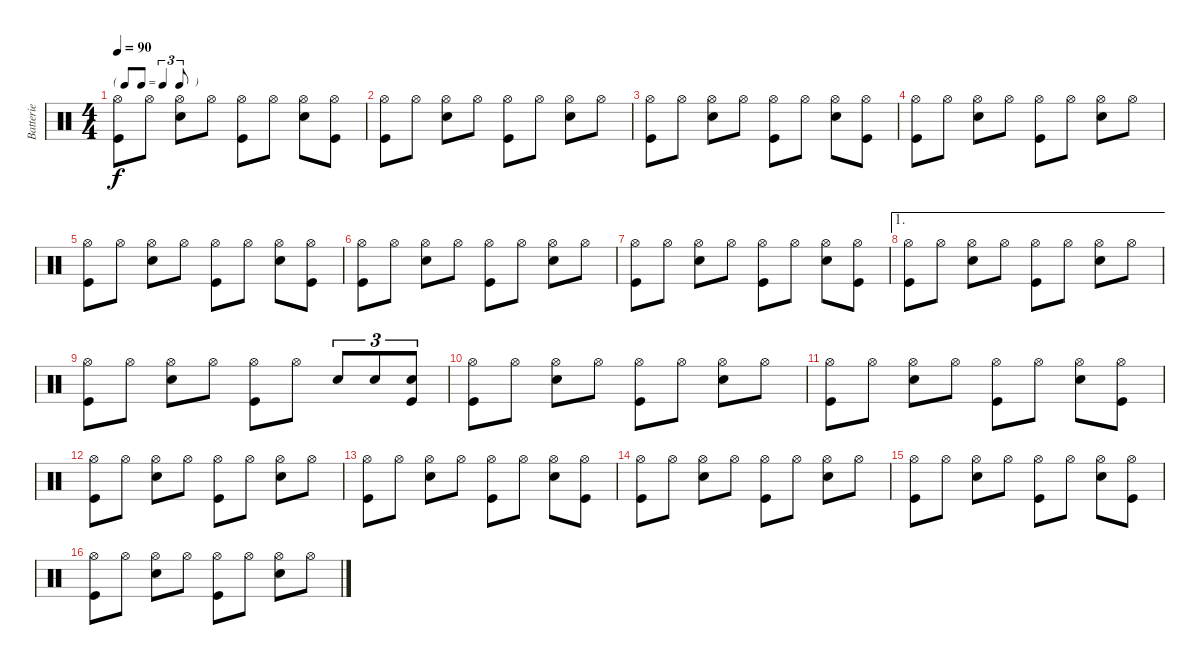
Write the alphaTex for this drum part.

\track ("Batterie" "Batterie") {instrument percussion}
\staff {score}
\articulation defaults
\ts (4 4)
\tf triplet8th
\tempo 90
\clef neutral
\ks c
("Hi-Hat (open)" "Kick (hit)").8{dy f} "Hi-Hat (open)".8 ("Hi-Hat (open)" "Snare (hit) 2").8 "Hi-Hat (open)".8 ("Hi-Hat (open)" "Kick (hit)").8 "Hi-Hat (open)".8 ("Hi-Hat (open)" "Snare (hit) 2").8 ("Hi-Hat (open)" "Kick (hit)").8 |
("Hi-Hat (open)" "Kick (hit)").8 "Hi-Hat (open)".8 ("Hi-Hat (open)" "Snare (hit) 2").8 "Hi-Hat (open)".8 ("Hi-Hat (open)" "Kick (hit)").8 "Hi-Hat (open)".8 ("Hi-Hat (open)" "Snare (hit) 2").8 "Hi-Hat (open)".8 |
("Hi-Hat (open)" "Kick (hit)").8 "Hi-Hat (open)".8 ("Hi-Hat (open)" "Snare (hit) 2").8 "Hi-Hat (open)".8 ("Hi-Hat (open)" "Kick (hit)").8 "Hi-Hat (open)".8 ("Hi-Hat (open)" "Snare (hit) 2").8 ("Hi-Hat (open)" "Kick (hit)").8 |
("Hi-Hat (open)" "Kick (hit)").8 "Hi-Hat (open)".8 ("Hi-Hat (open)" "Snare (hit) 2").8 "Hi-Hat (open)".8 ("Hi-Hat (open)" "Kick (hit)").8 "Hi-Hat (open)".8 ("Hi-Hat (open)" "Snare (hit) 2").8 "Hi-Hat (open)".8 |
("Hi-Hat (open)" "Kick (hit)").8 "Hi-Hat (open)".8 ("Hi-Hat (open)" "Snare (hit) 2").8 "Hi-Hat (open)".8 ("Hi-Hat (open)" "Kick (hit)").8 "Hi-Hat (open)".8 ("Hi-Hat (open)" "Snare (hit) 2").8 ("Hi-Hat (open)" "Kick (hit)").8 |
("Hi-Hat (open)" "Kick (hit)").8 "Hi-Hat (open)".8 ("Hi-Hat (open)" "Snare (hit) 2").8 "Hi-Hat (open)".8 ("Hi-Hat (open)" "Kick (hit)").8 "Hi-Hat (open)".8 ("Hi-Hat (open)" "Snare (hit) 2").8 "Hi-Hat (open)".8 |
("Hi-Hat (open)" "Kick (hit)").8 "Hi-Hat (open)".8 ("Hi-Hat (open)" "Snare (hit) 2").8 "Hi-Hat (open)".8 ("Hi-Hat (open)" "Kick (hit)").8 "Hi-Hat (open)".8 ("Hi-Hat (open)" "Snare (hit) 2").8 ("Hi-Hat (open)" "Kick (hit)").8 |
\ae 1
("Hi-Hat (open)" "Kick (hit)").8 "Hi-Hat (open)".8 ("Hi-Hat (open)" "Snare (hit) 2").8 "Hi-Hat (open)".8 ("Hi-Hat (open)" "Kick (hit)").8 "Hi-Hat (open)".8 ("Hi-Hat (open)" "Snare (hit) 2").8 "Hi-Hat (open)".8 |
("Hi-Hat (open)" "Kick (hit)").8 "Hi-Hat (open)".8 ("Hi-Hat (open)" "Snare (hit) 2").8 "Hi-Hat (open)".8 ("Hi-Hat (open)" "Kick (hit)").8 "Hi-Hat (open)".8 "Snare (hit) 2".8{tu (3 2)} "Snare (hit) 2".8{tu (3 2)} ("Snare (hit) 2" "Kick (hit)").8{tu (3 2)} |
("Hi-Hat (open)" "Kick (hit)").8 "Hi-Hat (open)".8 ("Hi-Hat (open)" "Snare (hit) 2").8 "Hi-Hat (open)".8 ("Hi-Hat (open)" "Kick (hit)").8 "Hi-Hat (open)".8 ("Hi-Hat (open)" "Snare (hit) 2").8 "Hi-Hat (open)".8 |
("Hi-Hat (open)" "Kick (hit)").8 "Hi-Hat (open)".8 ("Hi-Hat (open)" "Snare (hit) 2").8 "Hi-Hat (open)".8 ("Hi-Hat (open)" "Kick (hit)").8 "Hi-Hat (open)".8 ("Hi-Hat (open)" "Snare (hit) 2").8 ("Hi-Hat (open)" "Kick (hit)").8 |
("Hi-Hat (open)" "Kick (hit)").8 "Hi-Hat (open)".8 ("Hi-Hat (open)" "Snare (hit) 2").8 "Hi-Hat (open)".8 ("Hi-Hat (open)" "Kick (hit)").8 "Hi-Hat (open)".8 ("Hi-Hat (open)" "Snare (hit) 2").8 "Hi-Hat (open)".8 |
("Hi-Hat (open)" "Kick (hit)").8 "Hi-Hat (open)".8 ("Hi-Hat (open)" "Snare (hit) 2").8 "Hi-Hat (open)".8 ("Hi-Hat (open)" "Kick (hit)").8 "Hi-Hat (open)".8 ("Hi-Hat (open)" "Snare (hit) 2").8 ("Hi-Hat (open)" "Kick (hit)").8 |
("Hi-Hat (open)" "Kick (hit)").8 "Hi-Hat (open)".8 ("Hi-Hat (open)" "Snare (hit) 2").8 "Hi-Hat (open)".8 ("Hi-Hat (open)" "Kick (hit)").8 "Hi-Hat (open)".8 ("Hi-Hat (open)" "Snare (hit) 2").8 "Hi-Hat (open)".8 |
("Hi-Hat (open)" "Kick (hit)").8 "Hi-Hat (open)".8 ("Hi-Hat (open)" "Snare (hit) 2").8 "Hi-Hat (open)".8 ("Hi-Hat (open)" "Kick (hit)").8 "Hi-Hat (open)".8 ("Hi-Hat (open)" "Snare (hit) 2").8 ("Hi-Hat (open)" "Kick (hit)").8 |
("Hi-Hat (open)" "Kick (hit)").8 "Hi-Hat (open)".8 ("Hi-Hat (open)" "Snare (hit) 2").8 "Hi-Hat (open)".8 ("Hi-Hat (open)" "Kick (hit)").8 "Hi-Hat (open)".8 ("Hi-Hat (open)" "Snare (hit) 2").8 "Hi-Hat (open)".8
